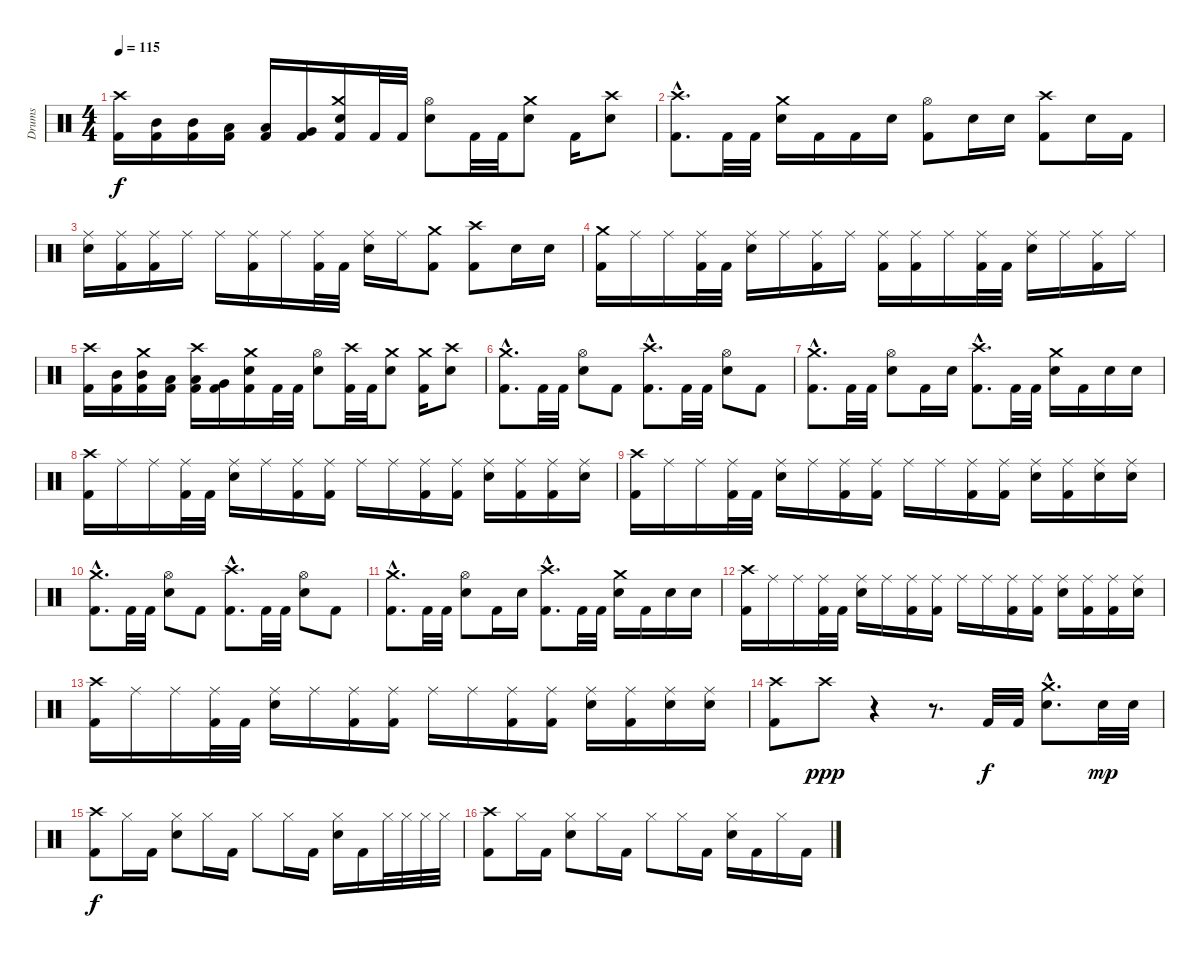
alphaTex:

\track ("Drums" "Drums") {instrument percussion}
\staff {score}
\articulation defaults
\ts (4 4)
\tempo 115
\clef neutral
\ks c
("Crash high (hit)" "Kick (hit) 2").16{dy f} ("Mid Tom (hit)" "Kick (hit) 2").16 ("Mid Tom (hit)" "Kick (hit) 2").16 ("Low Tom (hit)" "Kick (hit) 2").16 ("Low Tom (hit)" "Kick (hit) 2").16 ("Very Low Tom (hit)" "Kick (hit) 2").16 ("Crash medium (hit)" "Electric Snare (hit)" "Kick (hit) 2").16 "Kick (hit) 2".32 "Kick (hit) 2".32 ("Hi-Hat (open)" "Electric Snare (hit)").8 "Kick (hit) 2".32 "Kick (hit) 2".32 ("Crash medium (hit)" "Electric Snare (hit)").8 "Kick (hit) 2".16 ("Crash high (hit)" "Electric Snare (hit)").8 |
("Crash high (hit)"{hac} "Kick (hit) 2"{hac}).8{d} "Kick (hit) 2".32 "Kick (hit) 2".32 ("Crash medium (hit)" "Electric Snare (hit)").16 "Kick (hit) 2".16 "Kick (hit) 2".16 "Electric Snare (hit)".16 ("Hi-Hat (open)" "Kick (hit) 2").8 "Electric Snare (hit)".16 "Electric Snare (hit)".16 ("Crash high (hit)" "Kick (hit) 2").8 "Electric Snare (hit)".16 "Kick (hit) 2".16 |
("Ride (middle)" "Electric Snare (hit)").16 ("Ride (middle)" "Kick (hit) 2").16 ("Ride (middle)" "Kick (hit) 2").16 "Ride (middle)".16 "Ride (middle)".16 ("Ride (middle)" "Kick (hit) 2").16 "Ride (middle)".16 ("Ride (middle)" "Kick (hit) 2").32 "Kick (hit) 2".32 ("Ride (middle)" "Electric Snare (hit)").16 "Ride (middle)".16 ("Crash medium (hit)" "Kick (hit) 2").8 ("Crash high (hit)" "Kick (hit) 2").8 "Electric Snare (hit)".16 "Electric Snare (hit)".16 |
("Crash medium (hit)" "Kick (hit) 2").16 "Ride (middle)".16 "Ride (middle)".16 ("Ride (middle)" "Kick (hit) 2").32 "Kick (hit) 2".32 ("Ride (middle)" "Electric Snare (hit)").16 "Ride (middle)".16 ("Ride (middle)" "Kick (hit) 2").16 "Ride (middle)".16 ("Ride (middle)" "Kick (hit) 2").16 ("Ride (middle)" "Kick (hit) 2").16 "Ride (middle)".16 ("Ride (middle)" "Kick (hit) 2").32 "Kick (hit) 2".32 ("Ride (middle)" "Electric Snare (hit)").16 "Ride (middle)".16 ("Ride (middle)" "Kick (hit) 2").16 "Ride (middle)".16 |
("Crash high (hit)" "Kick (hit) 2").16 ("Mid Tom (hit)" "Kick (hit) 2").16 ("Crash medium (hit)" "Mid Tom (hit)" "Kick (hit) 2").16 ("Low Tom (hit)" "Kick (hit) 2").16 ("Crash high (hit)" "Low Tom (hit)" "Kick (hit) 2").16 ("Very Low Tom (hit)" "Kick (hit) 2").16 ("Crash medium (hit)" "Electric Snare (hit)" "Kick (hit) 2").16 "Kick (hit) 2".32 "Kick (hit) 2".32 ("Hi-Hat (open)" "Electric Snare (hit)").8 ("Crash high (hit)" "Kick (hit) 2").32 "Kick (hit) 2".32 ("Crash medium (hit)" "Electric Snare (hit)").8 ("Crash medium (hit)" "Kick (hit) 2").16 ("Crash high (hit)" "Electric Snare (hit)").8 |
("Crash medium (hit)"{hac} "Kick (hit) 2"{hac}).8{d} "Kick (hit) 2".32 "Kick (hit) 2".32 ("Hi-Hat (open)" "Electric Snare (hit)").8 "Kick (hit) 2".8 ("Crash high (hit)"{hac} "Kick (hit) 2"{hac}).8{d} "Kick (hit) 2".32 "Kick (hit) 2".32 ("Hi-Hat (open)" "Electric Snare (hit)").8 "Kick (hit) 2".8 |
("Crash medium (hit)"{hac} "Kick (hit) 2"{hac}).8{d} "Kick (hit) 2".32 "Kick (hit) 2".32 ("Hi-Hat (open)" "Electric Snare (hit)").8 "Kick (hit) 2".16 "Electric Snare (hit)".16 ("Crash high (hit)"{hac} "Kick (hit) 2"{hac}).8{d} "Kick (hit) 2".32 "Kick (hit) 2".32 ("Crash medium (hit)" "Electric Snare (hit)").16 "Kick (hit) 2".16 "Electric Snare (hit)".16 "Electric Snare (hit)".16 |
("Crash high (hit)" "Kick (hit) 2").16 "Ride (middle)".16 "Ride (middle)".16 ("Ride (middle)" "Kick (hit) 2").32 "Kick (hit) 2".32 ("Ride (middle)" "Electric Snare (hit)").16 "Ride (middle)".16 ("Ride (middle)" "Kick (hit) 2").16 ("Ride (middle)" "Kick (hit) 2").16 "Ride (middle)".16 "Ride (middle)".16 ("Ride (middle)" "Kick (hit) 2").16 ("Ride (middle)" "Kick (hit) 2").16 ("Ride (middle)" "Electric Snare (hit)").16 ("Ride (middle)" "Kick (hit) 2").16 ("Ride (middle)" "Kick (hit) 2").16 ("Ride (middle)" "Electric Snare (hit)").16 |
("Crash high (hit)" "Kick (hit) 2").16 "Ride (middle)".16 "Ride (middle)".16 ("Ride (middle)" "Kick (hit) 2").32 "Kick (hit) 2".32 ("Ride (middle)" "Electric Snare (hit)").16 "Ride (middle)".16 ("Ride (middle)" "Kick (hit) 2").16 ("Ride (middle)" "Kick (hit) 2").16 "Ride (middle)".16 "Ride (middle)".16 ("Ride (middle)" "Kick (hit) 2").16 ("Ride (middle)" "Kick (hit) 2").16 ("Ride (middle)" "Electric Snare (hit)").16 ("Ride (middle)" "Kick (hit) 2").16 ("Ride (middle)" "Electric Snare (hit)").16 ("Ride (middle)" "Electric Snare (hit)").16 |
("Crash medium (hit)"{hac} "Kick (hit) 2"{hac}).8{d} "Kick (hit) 2".32 "Kick (hit) 2".32 ("Hi-Hat (open)" "Electric Snare (hit)").8 "Kick (hit) 2".8 ("Crash high (hit)"{hac} "Kick (hit) 2"{hac}).8{d} "Kick (hit) 2".32 "Kick (hit) 2".32 ("Hi-Hat (open)" "Electric Snare (hit)").8 "Kick (hit) 2".8 |
("Crash medium (hit)"{hac} "Kick (hit) 2"{hac}).8{d} "Kick (hit) 2".32 "Kick (hit) 2".32 ("Hi-Hat (open)" "Electric Snare (hit)").8 "Kick (hit) 2".16 "Electric Snare (hit)".16 ("Crash high (hit)"{hac} "Kick (hit) 2"{hac}).8{d} "Kick (hit) 2".32 "Kick (hit) 2".32 ("Crash medium (hit)" "Electric Snare (hit)").16 "Kick (hit) 2".16 "Electric Snare (hit)".16 "Electric Snare (hit)".16 |
("Crash high (hit)" "Kick (hit) 2").16 "Ride (middle)".16 "Ride (middle)".16 ("Ride (middle)" "Kick (hit) 2").32 "Kick (hit) 2".32 ("Ride (middle)" "Electric Snare (hit)").16 "Ride (middle)".16 ("Ride (middle)" "Kick (hit) 2").16 ("Ride (middle)" "Kick (hit) 2").16 "Ride (middle)".16 "Ride (middle)".16 ("Ride (middle)" "Kick (hit) 2").16 ("Ride (middle)" "Kick (hit) 2").16 ("Ride (middle)" "Electric Snare (hit)").16 ("Ride (middle)" "Kick (hit) 2").16 ("Ride (middle)" "Kick (hit) 2").16 ("Ride (middle)" "Electric Snare (hit)").16 |
("Crash high (hit)" "Kick (hit) 2").16 "Ride (middle)".16 "Ride (middle)".16 ("Ride (middle)" "Kick (hit) 2").32 "Kick (hit) 2".32 ("Ride (middle)" "Electric Snare (hit)").16 "Ride (middle)".16 ("Ride (middle)" "Kick (hit) 2").16 ("Ride (middle)" "Kick (hit) 2").16 "Ride (middle)".16 "Ride (middle)".16 ("Ride (middle)" "Kick (hit) 2").16 ("Ride (middle)" "Kick (hit) 2").16 ("Ride (middle)" "Electric Snare (hit)").16 ("Ride (middle)" "Kick (hit) 2").16 ("Ride (middle)" "Electric Snare (hit)").16 ("Ride (middle)" "Electric Snare (hit)").16 |
("Crash high (hit)" "Kick (hit) 2").8 "Crash high (hit)".8{dy ppp} r.4 r.8{d} "Kick (hit) 2".32{dy f} "Kick (hit) 2".32 ("Crash medium (hit)"{hac} "Electric Snare (hit)"{hac}).8{d} "Electric Snare (hit)".32{dy mp} "Electric Snare (hit)".32 |
("Crash high (hit)" "Kick (hit) 2").8{dy f} "Hi-Hat (closed)".16 "Kick (hit) 2".16 ("Hi-Hat (closed)" "Electric Snare (hit)").8 "Hi-Hat (closed)".16 "Kick (hit) 2".16 "Hi-Hat (closed)".8 "Hi-Hat (closed)".16 "Kick (hit) 2".16 ("Hi-Hat (closed)" "Electric Snare (hit)").16 "Kick (hit) 2".16 "Hi-Hat (closed)".32 "Hi-Hat (closed)".32 "Hi-Hat (closed)".32 "Hi-Hat (closed)".32 |
("Crash high (hit)" "Kick (hit) 2").8 "Hi-Hat (closed)".16 "Kick (hit) 2".16 ("Hi-Hat (closed)" "Electric Snare (hit)").8 "Hi-Hat (closed)".16 "Kick (hit) 2".16 "Hi-Hat (closed)".8 "Hi-Hat (closed)".16 "Kick (hit) 2".16 ("Hi-Hat (closed)" "Electric Snare (hit)").16 "Kick (hit) 2".16 "Hi-Hat (closed)".16 "Kick (hit) 2".16
